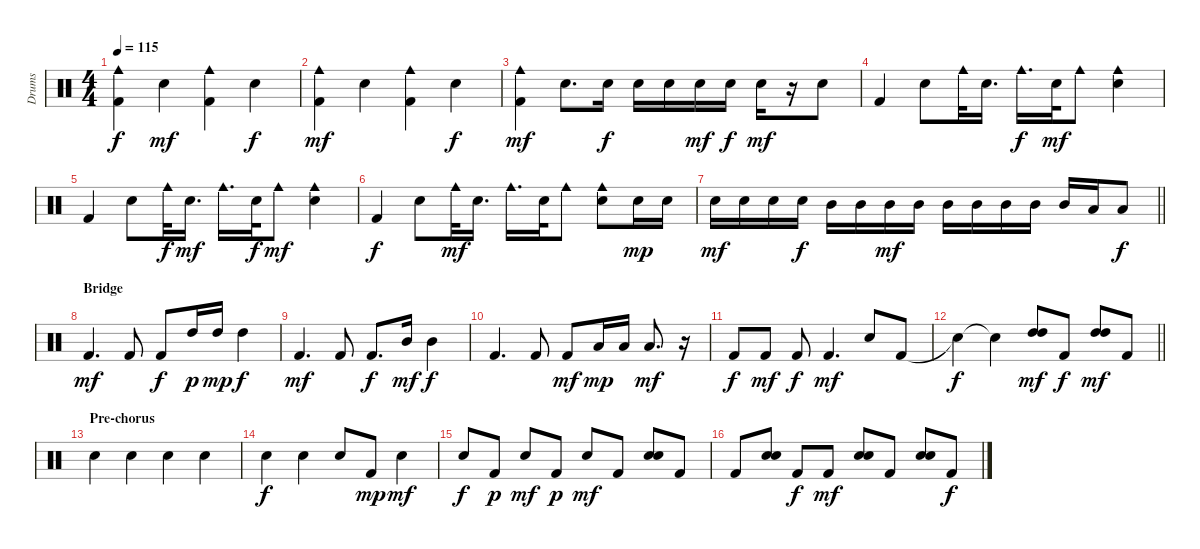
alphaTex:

\track ("Drums" "Drums") {instrument percussion}
\staff {score}
\articulation defaults
\ts (4 4)
\tempo 115
\clef neutral
\ks c
("Cowbell medium (hit)" "Kick (hit) 2").4{dy f} "Electric Snare (hit)".4{dy mf} ("Cowbell medium (hit)" "Kick (hit) 2").4 "Electric Snare (hit)".4{dy f} |
("Cowbell medium (hit)" "Kick (hit) 2").4{dy mf} "Electric Snare (hit)".4 ("Cowbell medium (hit)" "Kick (hit) 2").4 "Electric Snare (hit)".4{dy f} |
("Kick (hit) 2" "Cowbell medium (hit)").4{dy mf} "Electric Snare (hit)".8{d} "Electric Snare (hit)".16{dy f} "Electric Snare (hit)".16 "Electric Snare (hit)".16 "Electric Snare (hit)".16{dy mf} "Electric Snare (hit)".16{dy f} "Electric Snare (hit)".16{dy mf} r.16 "Electric Snare (hit)".8 |
"Kick (hit) 2".4 "Electric Snare (hit)".8 "Cowbell medium (hit)".32 "Electric Snare (hit)".16{d} "Cowbell medium (hit)".16{d dy f} "Electric Snare (hit)".32{dy mf} "Cowbell medium (hit)".8 ("Cowbell medium (hit)" "Electric Snare (hit)").4 |
"Kick (hit) 2".4 "Electric Snare (hit)".8 "Cowbell medium (hit)".32{dy f} "Electric Snare (hit)".16{d dy mf} "Cowbell medium (hit)".16{d} "Electric Snare (hit)".32{dy f} "Cowbell medium (hit)".8{dy mf} ("Cowbell medium (hit)" "Electric Snare (hit)").4 |
"Kick (hit) 2".4{dy f} "Electric Snare (hit)".8 "Cowbell medium (hit)".32{dy mf} "Electric Snare (hit)".16{d} "Cowbell medium (hit)".16{d} "Electric Snare (hit)".32 "Cowbell medium (hit)".8 ("Cowbell medium (hit)" "Electric Snare (hit)").8 "Electric Snare (hit)".16{dy mp} "Electric Snare (hit)".16 |
\barLineRight lightlight "Electric Snare (hit)".16{dy mf} "Electric Snare (hit)".16 "Electric Snare (hit)".16 "Electric Snare (hit)".16{dy f} "Mid Tom (hit)".16 "Mid Tom (hit)".16 "Mid Tom (hit)".16{dy mf} "Mid Tom (hit)".16 "Mid Tom (hit)".16 "Mid Tom (hit)".16 "Mid Tom (hit)".16 "Mid Tom (hit)".16 "Mid Tom (hit)".16 "Low Tom (hit)".16 "Low Tom (hit)".8{dy f}
|
\section ("" "Bridge")
"Kick (hit) 2".4{d dy mf} "Kick (hit) 2".8 "Kick (hit) 2".8{dy f} "High Tom (hit)".16{dy p} "High Tom (hit)".16{dy mp} "High Tom (hit)".4{dy f} |
"Kick (hit) 2".4{d dy mf} "Kick (hit) 2".8 "Kick (hit) 2".8{d dy f} "Mid Tom (hit)".16{dy mf} "Mid Tom (hit)".4{dy f} |
"Kick (hit) 2".4{d} "Kick (hit) 2".8 "Kick (hit) 2".8{dy mf} "Low Tom (hit)".16{dy mp} "Low Tom (hit)".16 "Low Tom (hit)".8{d dy mf} r.16 |
"Kick (hit) 2".8{dy f} "Kick (hit) 2".8{dy mf} "Kick (hit) 2".8{dy f} "Kick (hit) 2".4{d dy mf} "Electric Snare (hit)".8 "Kick (hit) 2".8 |
\barLineRight lightlight "Snare (hit)"{t}.4{dy f} "Snare (hit)"{t}.4
("High Tom (hit)" "High Tom (hit)").8{dy mf} "Kick (hit) 2".8{dy f} ("High Tom (hit)" "High Tom (hit)").8{dy mf} "Kick (hit) 2".8 |
\section ("" "Pre-chorus")
"Electric Snare (hit)".4 "Electric Snare (hit)".4 "Electric Snare (hit)".4 "Electric Snare (hit)".4 |
"Electric Snare (hit)".4{dy f} "Electric Snare (hit)".4 "Electric Snare (hit)".8 "Kick (hit) 2".8{dy mp} "Electric Snare (hit)".4{dy mf} |
"Electric Snare (hit)".8{dy f} "Kick (hit) 2".8{dy p} "Electric Snare (hit)".8{dy mf} "Kick (hit) 2".8{dy p} "Electric Snare (hit)".8{dy mf} "Kick (hit) 2".8 ("Electric Snare (hit)" "Electric Snare (hit)").8 "Kick (hit) 2".8 |
"Kick (hit) 2".8 ("Electric Snare (hit)" "Electric Snare (hit)").8 "Kick (hit) 2".8{dy f} "Kick (hit) 2".8{dy mf} ("Electric Snare (hit)" "Electric Snare (hit)").8 "Kick (hit) 2".8 ("Electric Snare (hit)" "Electric Snare (hit)").8 "Kick (hit) 2".8{dy f}
